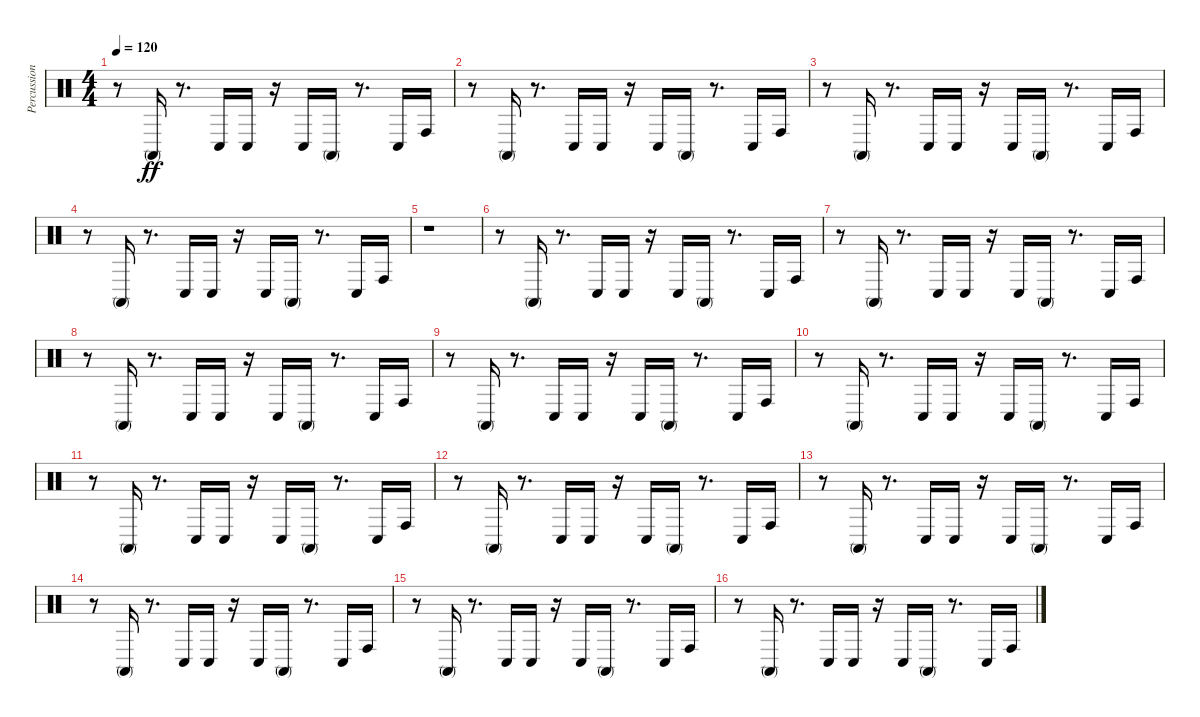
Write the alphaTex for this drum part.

\track ("Percussion" "Percussion") {instrument percussion}
\staff {score}
\articulation defaults
\ts (4 4)
\tempo 120
\clef neutral
\ks c
r.8{dy ff} "Conga high (mute)".16 r.8{d} "Conga low (hit)".16 "Conga low (hit)".16 r.16 "Conga low (hit)".16 "Conga high (mute)".16 r.8{d} "Conga low (hit)".16 "Conga high (hit)".16 |
r.8 "Conga high (mute)".16 r.8{d} "Conga low (hit)".16 "Conga low (hit)".16 r.16 "Conga low (hit)".16 "Conga high (mute)".16 r.8{d} "Conga low (hit)".16 "Conga high (hit)".16 |
r.8 "Conga high (mute)".16 r.8{d} "Conga low (hit)".16 "Conga low (hit)".16 r.16 "Conga low (hit)".16 "Conga high (mute)".16 r.8{d} "Conga low (hit)".16 "Conga high (hit)".16 |
r.8 "Conga high (mute)".16 r.8{d} "Conga low (hit)".16 "Conga low (hit)".16 r.16 "Conga low (hit)".16 "Conga high (mute)".16 r.8{d} "Conga low (hit)".16 "Conga high (hit)".16 |
r.1 |
r.8 "Conga high (mute)".16 r.8{d} "Conga low (hit)".16 "Conga low (hit)".16 r.16 "Conga low (hit)".16 "Conga high (mute)".16 r.8{d} "Conga low (hit)".16 "Conga high (hit)".16 |
r.8 "Conga high (mute)".16 r.8{d} "Conga low (hit)".16 "Conga low (hit)".16 r.16 "Conga low (hit)".16 "Conga high (mute)".16 r.8{d} "Conga low (hit)".16 "Conga high (hit)".16 |
r.8 "Conga high (mute)".16 r.8{d} "Conga low (hit)".16 "Conga low (hit)".16 r.16 "Conga low (hit)".16 "Conga high (mute)".16 r.8{d} "Conga low (hit)".16 "Conga high (hit)".16 |
r.8 "Conga high (mute)".16 r.8{d} "Conga low (hit)".16 "Conga low (hit)".16 r.16 "Conga low (hit)".16 "Conga high (mute)".16 r.8{d} "Conga low (hit)".16 "Conga high (hit)".16 |
r.8 "Conga high (mute)".16 r.8{d} "Conga low (hit)".16 "Conga low (hit)".16 r.16 "Conga low (hit)".16 "Conga high (mute)".16 r.8{d} "Conga low (hit)".16 "Conga high (hit)".16 |
r.8 "Conga high (mute)".16 r.8{d} "Conga low (hit)".16 "Conga low (hit)".16 r.16 "Conga low (hit)".16 "Conga high (mute)".16 r.8{d} "Conga low (hit)".16 "Conga high (hit)".16 |
r.8 "Conga high (mute)".16 r.8{d} "Conga low (hit)".16 "Conga low (hit)".16 r.16 "Conga low (hit)".16 "Conga high (mute)".16 r.8{d} "Conga low (hit)".16 "Conga high (hit)".16 |
r.8 "Conga high (mute)".16 r.8{d} "Conga low (hit)".16 "Conga low (hit)".16 r.16 "Conga low (hit)".16 "Conga high (mute)".16 r.8{d} "Conga low (hit)".16 "Conga high (hit)".16 |
r.8 "Conga high (mute)".16 r.8{d} "Conga low (hit)".16 "Conga low (hit)".16 r.16 "Conga low (hit)".16 "Conga high (mute)".16 r.8{d} "Conga low (hit)".16 "Conga high (hit)".16 |
r.8 "Conga high (mute)".16 r.8{d} "Conga low (hit)".16 "Conga low (hit)".16 r.16 "Conga low (hit)".16 "Conga high (mute)".16 r.8{d} "Conga low (hit)".16 "Conga high (hit)".16 |
r.8 "Conga high (mute)".16 r.8{d} "Conga low (hit)".16 "Conga low (hit)".16 r.16 "Conga low (hit)".16 "Conga high (mute)".16 r.8{d} "Conga low (hit)".16 "Conga high (hit)".16
